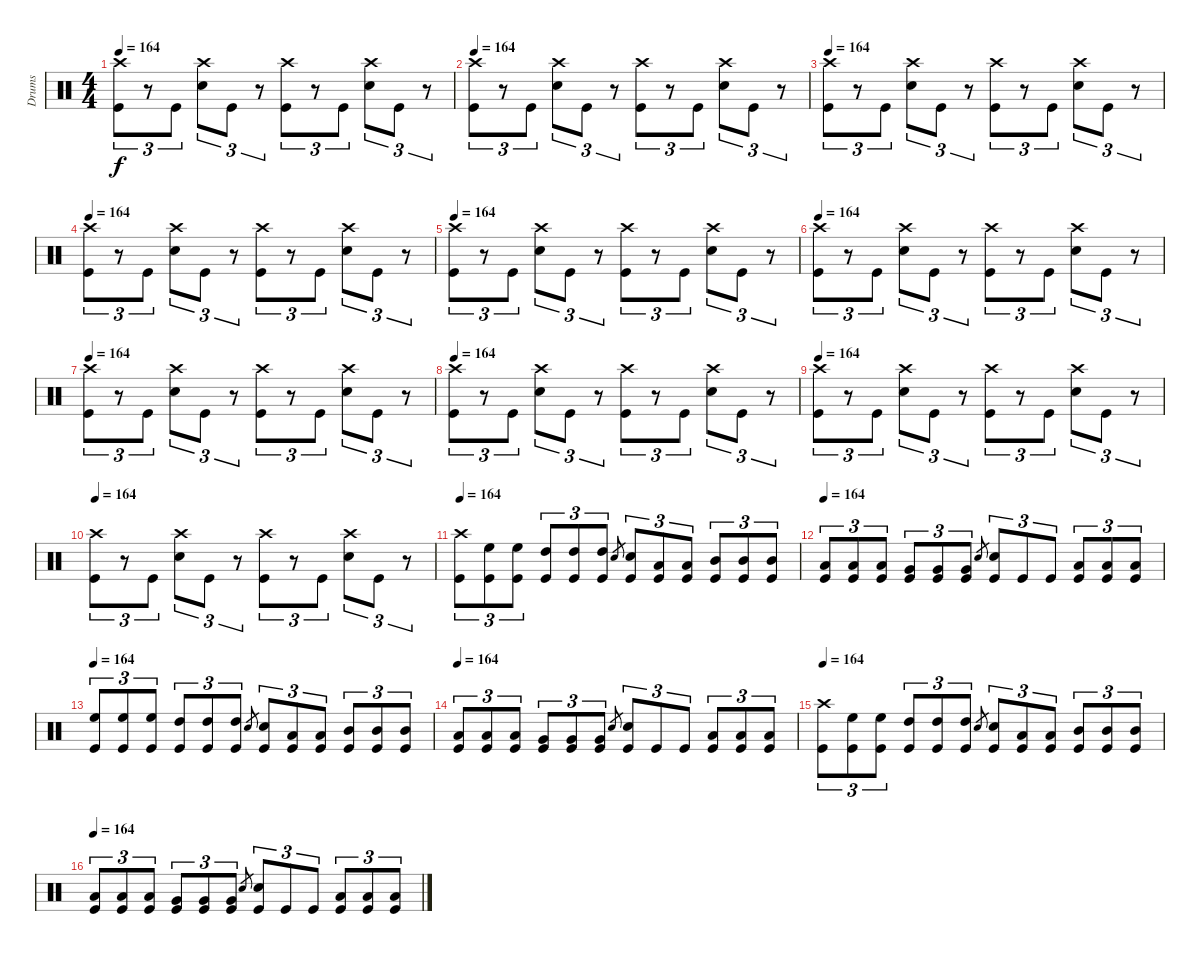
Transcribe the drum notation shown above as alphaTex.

\track ("Drums" "Drums") {instrument percussion}
\staff {score}
\articulation defaults
\ts (4 4)
\tempo 164
\clef neutral
\ks c
("Crash high (hit)" "Kick (hit)").8{tu (3 2) dy f} r.8{tu (3 2)} "Kick (hit)".8{tu (3 2)} ("Crash high (hit)" "Electric Snare (hit)").8{tu (3 2)} "Kick (hit)".8{tu (3 2)} r.8{tu (3 2)} ("Crash high (hit)" "Kick (hit)").8{tu (3 2)} r.8{tu (3 2)} "Kick (hit)".8{tu (3 2)} ("Crash high (hit)" "Electric Snare (hit)").8{tu (3 2)} "Kick (hit)".8{tu (3 2)} r.8{tu (3 2)} |
\tempo 164
("Crash high (hit)" "Kick (hit)").8{tu (3 2)} r.8{tu (3 2)} "Kick (hit)".8{tu (3 2)} ("Crash high (hit)" "Electric Snare (hit)").8{tu (3 2)} "Kick (hit)".8{tu (3 2)} r.8{tu (3 2)} ("Crash high (hit)" "Kick (hit)").8{tu (3 2)} r.8{tu (3 2)} "Kick (hit)".8{tu (3 2)} ("Crash high (hit)" "Electric Snare (hit)").8{tu (3 2)} "Kick (hit)".8{tu (3 2)} r.8{tu (3 2)} |
\tempo 164
("Crash high (hit)" "Kick (hit)").8{tu (3 2)} r.8{tu (3 2)} "Kick (hit)".8{tu (3 2)} ("Crash high (hit)" "Electric Snare (hit)").8{tu (3 2)} "Kick (hit)".8{tu (3 2)} r.8{tu (3 2)} ("Crash high (hit)" "Kick (hit)").8{tu (3 2)} r.8{tu (3 2)} "Kick (hit)".8{tu (3 2)} ("Crash high (hit)" "Electric Snare (hit)").8{tu (3 2)} "Kick (hit)".8{tu (3 2)} r.8{tu (3 2)} |
\tempo 164
("Crash high (hit)" "Kick (hit)").8{tu (3 2)} r.8{tu (3 2)} "Kick (hit)".8{tu (3 2)} ("Crash high (hit)" "Electric Snare (hit)").8{tu (3 2)} "Kick (hit)".8{tu (3 2)} r.8{tu (3 2)} ("Crash high (hit)" "Kick (hit)").8{tu (3 2)} r.8{tu (3 2)} "Kick (hit)".8{tu (3 2)} ("Crash high (hit)" "Electric Snare (hit)").8{tu (3 2)} "Kick (hit)".8{tu (3 2)} r.8{tu (3 2)} |
\tempo 164
("Crash high (hit)" "Kick (hit)").8{tu (3 2)} r.8{tu (3 2)} "Kick (hit)".8{tu (3 2)} ("Crash high (hit)" "Electric Snare (hit)").8{tu (3 2)} "Kick (hit)".8{tu (3 2)} r.8{tu (3 2)} ("Crash high (hit)" "Kick (hit)").8{tu (3 2)} r.8{tu (3 2)} "Kick (hit)".8{tu (3 2)} ("Crash high (hit)" "Electric Snare (hit)").8{tu (3 2)} "Kick (hit)".8{tu (3 2)} r.8{tu (3 2)} |
\tempo 164
("Crash high (hit)" "Kick (hit)").8{tu (3 2)} r.8{tu (3 2)} "Kick (hit)".8{tu (3 2)} ("Crash high (hit)" "Electric Snare (hit)").8{tu (3 2)} "Kick (hit)".8{tu (3 2)} r.8{tu (3 2)} ("Crash high (hit)" "Kick (hit)").8{tu (3 2)} r.8{tu (3 2)} "Kick (hit)".8{tu (3 2)} ("Crash high (hit)" "Electric Snare (hit)").8{tu (3 2)} "Kick (hit)".8{tu (3 2)} r.8{tu (3 2)} |
\tempo 164
("Crash high (hit)" "Kick (hit)").8{tu (3 2)} r.8{tu (3 2)} "Kick (hit)".8{tu (3 2)} ("Crash high (hit)" "Electric Snare (hit)").8{tu (3 2)} "Kick (hit)".8{tu (3 2)} r.8{tu (3 2)} ("Crash high (hit)" "Kick (hit)").8{tu (3 2)} r.8{tu (3 2)} "Kick (hit)".8{tu (3 2)} ("Crash high (hit)" "Electric Snare (hit)").8{tu (3 2)} "Kick (hit)".8{tu (3 2)} r.8{tu (3 2)} |
\tempo 164
("Crash high (hit)" "Kick (hit)").8{tu (3 2)} r.8{tu (3 2)} "Kick (hit)".8{tu (3 2)} ("Crash high (hit)" "Electric Snare (hit)").8{tu (3 2)} "Kick (hit)".8{tu (3 2)} r.8{tu (3 2)} ("Crash high (hit)" "Kick (hit)").8{tu (3 2)} r.8{tu (3 2)} "Kick (hit)".8{tu (3 2)} ("Crash high (hit)" "Electric Snare (hit)").8{tu (3 2)} "Kick (hit)".8{tu (3 2)} r.8{tu (3 2)} |
\tempo 164
("Crash high (hit)" "Kick (hit)").8{tu (3 2)} r.8{tu (3 2)} "Kick (hit)".8{tu (3 2)} ("Crash high (hit)" "Electric Snare (hit)").8{tu (3 2)} "Kick (hit)".8{tu (3 2)} r.8{tu (3 2)} ("Crash high (hit)" "Kick (hit)").8{tu (3 2)} r.8{tu (3 2)} "Kick (hit)".8{tu (3 2)} ("Crash high (hit)" "Electric Snare (hit)").8{tu (3 2)} "Kick (hit)".8{tu (3 2)} r.8{tu (3 2)} |
\tempo 164
("Crash high (hit)" "Kick (hit)").8{tu (3 2)} r.8{tu (3 2)} "Kick (hit)".8{tu (3 2)} ("Crash high (hit)" "Electric Snare (hit)").8{tu (3 2)} "Kick (hit)".8{tu (3 2)} r.8{tu (3 2)} ("Crash high (hit)" "Kick (hit)").8{tu (3 2)} r.8{tu (3 2)} "Kick (hit)".8{tu (3 2)} ("Crash high (hit)" "Electric Snare (hit)").8{tu (3 2)} "Kick (hit)".8{tu (3 2)} r.8{tu (3 2)} |
\tempo 164
("Crash high (hit)" "Kick (hit)").8{tu (3 2)} ("High Floor Tom (hit)" "Kick (hit)").8{tu (3 2)} ("High Floor Tom (hit)" "Kick (hit)").8{tu (3 2)} ("High Tom (hit)" "Kick (hit)").8{tu (3 2)} ("High Tom (hit)" "Kick (hit)").8{tu (3 2)} ("High Tom (hit)" "Kick (hit)").8{tu (3 2)} "Electric Snare (hit)".8{gr} ("Electric Snare (hit)" "Kick (hit)").8{tu (3 2)} ("Low Tom (hit)" "Kick (hit)").8{tu (3 2)} ("Low Tom (hit)" "Kick (hit)").8{tu (3 2)} ("Mid Tom (hit)" "Kick (hit)").8{tu (3 2)} ("Mid Tom (hit)" "Kick (hit)").8{tu (3 2)} ("Mid Tom (hit)" "Kick (hit)").8{tu (3 2)} |
\tempo 164
("Low Tom (hit)" "Kick (hit)").8{tu (3 2)} ("Low Tom (hit)" "Kick (hit)").8{tu (3 2)} ("Low Tom (hit)" "Kick (hit)").8{tu (3 2)} ("Very Low Tom (hit)" "Kick (hit)").8{tu (3 2)} ("Very Low Tom (hit)" "Kick (hit)").8{tu (3 2)} ("Very Low Tom (hit)" "Kick (hit)").8{tu (3 2)} "Electric Snare (hit)".8{gr} ("Electric Snare (hit)" "Kick (hit)").8{tu (3 2)} "Kick (hit)".8{tu (3 2)} "Kick (hit)".8{tu (3 2)} ("Low Floor Tom (hit)" "Kick (hit)").8{tu (3 2)} ("Low Floor Tom (hit)" "Kick (hit)").8{tu (3 2)} ("Low Floor Tom (hit)" "Kick (hit)").8{tu (3 2)} |
\tempo 164
("High Floor Tom (hit)" "Kick (hit)").8{tu (3 2)} ("High Floor Tom (hit)" "Kick (hit)").8{tu (3 2)} ("High Floor Tom (hit)" "Kick (hit)").8{tu (3 2)} ("High Tom (hit)" "Kick (hit)").8{tu (3 2)} ("High Tom (hit)" "Kick (hit)").8{tu (3 2)} ("High Tom (hit)" "Kick (hit)").8{tu (3 2)} "Electric Snare (hit)".8{gr} ("Electric Snare (hit)" "Kick (hit)").8{tu (3 2)} ("Low Tom (hit)" "Kick (hit)").8{tu (3 2)} ("Low Tom (hit)" "Kick (hit)").8{tu (3 2)} ("Mid Tom (hit)" "Kick (hit)").8{tu (3 2)} ("Mid Tom (hit)" "Kick (hit)").8{tu (3 2)} ("Mid Tom (hit)" "Kick (hit)").8{tu (3 2)} |
\tempo 164
("Low Tom (hit)" "Kick (hit)").8{tu (3 2)} ("Low Tom (hit)" "Kick (hit)").8{tu (3 2)} ("Low Tom (hit)" "Kick (hit)").8{tu (3 2)} ("Very Low Tom (hit)" "Kick (hit)").8{tu (3 2)} ("Very Low Tom (hit)" "Kick (hit)").8{tu (3 2)} ("Very Low Tom (hit)" "Kick (hit)").8{tu (3 2)} "Electric Snare (hit)".8{gr} ("Electric Snare (hit)" "Kick (hit)").8{tu (3 2)} "Kick (hit)".8{tu (3 2)} "Kick (hit)".8{tu (3 2)} ("Low Floor Tom (hit)" "Kick (hit)").8{tu (3 2)} ("Low Floor Tom (hit)" "Kick (hit)").8{tu (3 2)} ("Low Floor Tom (hit)" "Kick (hit)").8{tu (3 2)} |
\tempo 164
("Crash high (hit)" "Kick (hit)").8{tu (3 2)} ("High Floor Tom (hit)" "Kick (hit)").8{tu (3 2)} ("High Floor Tom (hit)" "Kick (hit)").8{tu (3 2)} ("High Tom (hit)" "Kick (hit)").8{tu (3 2)} ("High Tom (hit)" "Kick (hit)").8{tu (3 2)} ("High Tom (hit)" "Kick (hit)").8{tu (3 2)} "Electric Snare (hit)".8{gr} ("Electric Snare (hit)" "Kick (hit)").8{tu (3 2)} ("Low Tom (hit)" "Kick (hit)").8{tu (3 2)} ("Low Tom (hit)" "Kick (hit)").8{tu (3 2)} ("Mid Tom (hit)" "Kick (hit)").8{tu (3 2)} ("Mid Tom (hit)" "Kick (hit)").8{tu (3 2)} ("Mid Tom (hit)" "Kick (hit)").8{tu (3 2)} |
\tempo 164
("Low Tom (hit)" "Kick (hit)").8{tu (3 2)} ("Low Tom (hit)" "Kick (hit)").8{tu (3 2)} ("Low Tom (hit)" "Kick (hit)").8{tu (3 2)} ("Very Low Tom (hit)" "Kick (hit)").8{tu (3 2)} ("Very Low Tom (hit)" "Kick (hit)").8{tu (3 2)} ("Very Low Tom (hit)" "Kick (hit)").8{tu (3 2)} "Electric Snare (hit)".8{gr} ("Electric Snare (hit)" "Kick (hit)").8{tu (3 2)} "Kick (hit)".8{tu (3 2)} "Kick (hit)".8{tu (3 2)} ("Low Floor Tom (hit)" "Kick (hit)").8{tu (3 2)} ("Low Floor Tom (hit)" "Kick (hit)").8{tu (3 2)} ("Low Floor Tom (hit)" "Kick (hit)").8{tu (3 2)}
